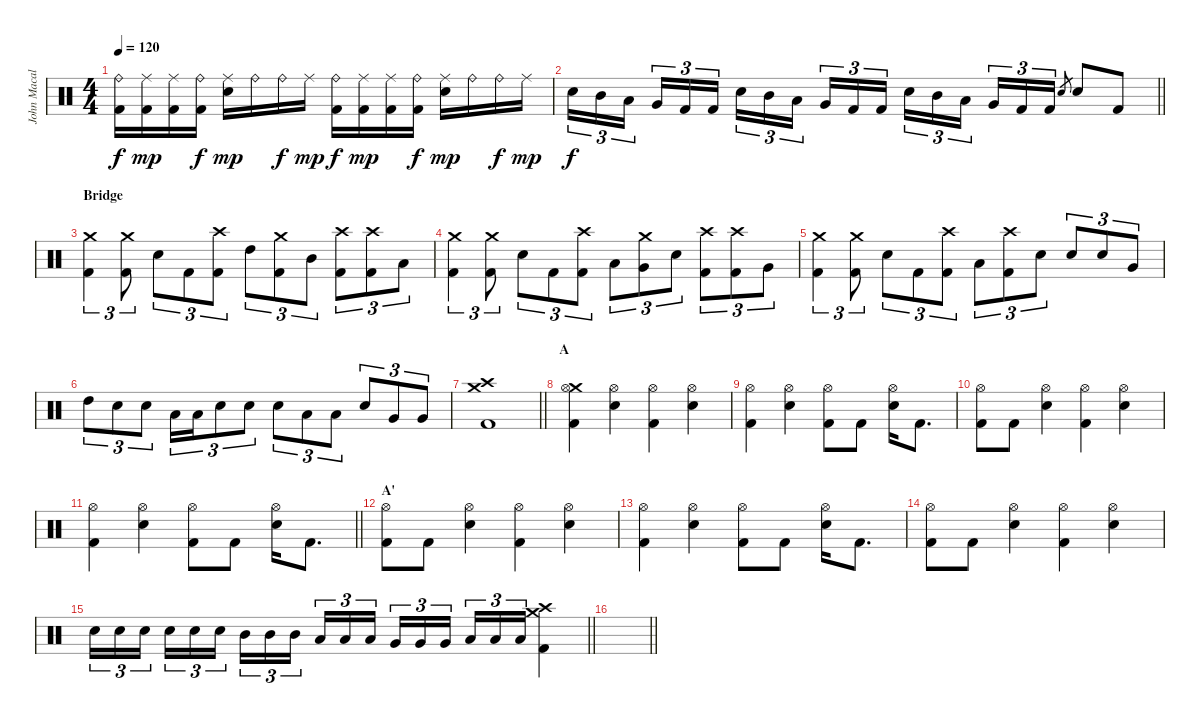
\track ("John Macaluso" "John Macal") {instrument percussion}
\staff {score}
\articulation defaults
\ts (4 4)
\tempo 120
\clef neutral
\ks c
("Ride (bell)" "Kick (hit) 2").16{dy f} ("Ride (middle)" "Kick (hit) 2").16{dy mp} ("Ride (middle)" "Kick (hit) 2").16 ("Ride (bell)" "Kick (hit) 2").16{dy f} ("Ride (middle)" "Snare (hit) 2").16{dy mp} "Ride (bell)".16 "Ride (bell)".16{dy f} "Ride (middle)".16{dy mp} ("Ride (bell)" "Kick (hit) 2").16{dy f} ("Ride (middle)" "Kick (hit) 2").16{dy mp} ("Ride (middle)" "Kick (hit) 2").16 ("Ride (bell)" "Kick (hit) 2").16{dy f} ("Ride (middle)" "Snare (hit) 2").16{dy mp} "Ride (bell)".16 "Ride (bell)".16{dy f} "Ride (middle)".16{dy mp} |
\barLineRight lightlight "Snare (hit) 2".16{tu (3 2) dy f} "Mid Tom (hit)".16{tu (3 2)} "Low Tom (hit)".16{tu (3 2) beam splitsecondary} "Very Low Tom (hit)".16{tu (3 2)} "Kick (hit) 2".16{tu (3 2)} "Kick (hit) 2".16{tu (3 2)} "Snare (hit) 2".16{tu (3 2)} "Mid Tom (hit)".16{tu (3 2)} "Low Tom (hit)".16{tu (3 2) beam splitsecondary} "Very Low Tom (hit)".16{tu (3 2)} "Kick (hit) 2".16{tu (3 2)} "Kick (hit) 2".16{tu (3 2)} "Snare (hit) 2".16{tu (3 2)} "Mid Tom (hit)".16{tu (3 2)} "Low Tom (hit)".16{tu (3 2) beam splitsecondary} "Very Low Tom (hit)".16{tu (3 2)} "Kick (hit) 2".16{tu (3 2)} "Kick (hit) 2".16{tu (3 2)} "Snare (hit) 2".8{gr} "Snare (hit) 2".8 "Kick (hit) 2".8
|
\section ("" "Bridge")
("Crash medium (hit)" "Kick (hit) 2").4{tu (3 2)} ("Crash medium (hit)" "Kick (hit) 2").8{tu (3 2)} "Snare (hit) 2".8{tu (3 2)} "Kick (hit) 2".8{tu (3 2)} ("Crash high (hit)" "Kick (hit) 2").8{tu (3 2)} "High Tom (hit)".8{tu (3 2)} ("Crash medium (hit)" "Kick (hit) 2").8{tu (3 2)} "Mid Tom (hit)".8{tu (3 2)} ("Crash high (hit)" "Kick (hit) 2").8{tu (3 2)} ("Crash high (hit)" "Kick (hit) 2").8{tu (3 2)} "Low Tom (hit)".8{tu (3 2)} |
("Crash medium (hit)" "Kick (hit) 2").4{tu (3 2)} ("Crash medium (hit)" "Kick (hit) 2").8{tu (3 2)} "Snare (hit) 2".8{tu (3 2)} "Kick (hit) 2".8{tu (3 2)} ("Crash high (hit)" "Kick (hit) 2").8{tu (3 2)} "Low Tom (hit)".8{tu (3 2)} ("Crash medium (hit)" "Very Low Tom (hit)").8{tu (3 2)} "Snare (hit) 2".8{tu (3 2)} ("Crash high (hit)" "Kick (hit) 2").8{tu (3 2)} ("Crash high (hit)" "Kick (hit) 2").8{tu (3 2)} "Very Low Tom (hit)".8{tu (3 2)} |
("Crash medium (hit)" "Kick (hit) 2").4{tu (3 2)} ("Crash medium (hit)" "Kick (hit) 2").8{tu (3 2)} "Snare (hit) 2".8{tu (3 2)} "Kick (hit) 2".8{tu (3 2)} ("Crash high (hit)" "Kick (hit) 2").8{tu (3 2)} "Low Tom (hit)".8{tu (3 2)} ("Crash high (hit)" "Kick (hit) 2").8{tu (3 2)} "Snare (hit) 2".8{tu (3 2)} "Snare (hit) 2".8{tu (3 2)} "Snare (hit) 2".8{tu (3 2)} "Very Low Tom (hit)".8{tu (3 2)} |
"High Tom (hit)".8{tu (3 2)} "Snare (hit) 2".8{tu (3 2)} "Snare (hit) 2".8{tu (3 2)} "Low Tom (hit)".16{tu (3 2)} "Low Tom (hit)".16{tu (3 2)} "Snare (hit) 2".8{tu (3 2)} "Snare (hit) 2".8{tu (3 2)} "Snare (hit) 2".8{tu (3 2)} "Low Tom (hit)".8{tu (3 2)} "Low Tom (hit)".8{tu (3 2)} "Snare (hit) 2".8{tu (3 2)} "Very Low Tom (hit)".8{tu (3 2)} "Very Low Tom (hit)".8{tu (3 2)} |
\barLineRight lightlight
("Crash medium (hit)" "Crash high (hit)" "Kick (hit) 2").1 |
\section ("" "A")
("Crash medium (hit)" "Hi-Hat (open)" "Kick (hit) 2").4 ("Hi-Hat (open)" "Snare (hit) 2").4 ("Hi-Hat (open)" "Kick (hit) 2").4 ("Hi-Hat (open)" "Snare (hit) 2").4 |
("Hi-Hat (open)" "Kick (hit) 2").4 ("Hi-Hat (open)" "Snare (hit) 2").4 ("Hi-Hat (open)" "Kick (hit) 2").8 "Kick (hit) 2".8 ("Hi-Hat (open)" "Snare (hit) 2").16 "Kick (hit) 2".8{d} |
("Hi-Hat (open)" "Kick (hit) 2").8 "Kick (hit) 2".8 ("Hi-Hat (open)" "Snare (hit) 2").4 ("Hi-Hat (open)" "Kick (hit) 2").4 ("Hi-Hat (open)" "Snare (hit) 2").4 |
\barLineRight lightlight
("Hi-Hat (open)" "Kick (hit) 2").4 ("Hi-Hat (open)" "Snare (hit) 2").4 ("Hi-Hat (open)" "Kick (hit) 2").8 "Kick (hit) 2".8 ("Hi-Hat (open)" "Snare (hit) 2").16 "Kick (hit) 2".8{d} |
\section ("" "A'")
("Hi-Hat (open)" "Kick (hit) 2").8 "Kick (hit) 2".8 ("Hi-Hat (open)" "Snare (hit) 2").4 ("Hi-Hat (open)" "Kick (hit) 2").4 ("Hi-Hat (open)" "Snare (hit) 2").4 |
("Hi-Hat (open)" "Kick (hit) 2").4 ("Hi-Hat (open)" "Snare (hit) 2").4 ("Hi-Hat (open)" "Kick (hit) 2").8 "Kick (hit) 2".8 ("Hi-Hat (open)" "Snare (hit) 2").16 "Kick (hit) 2".8{d} |
("Hi-Hat (open)" "Kick (hit) 2").8 "Kick (hit) 2".8 ("Hi-Hat (open)" "Snare (hit) 2").4 ("Hi-Hat (open)" "Kick (hit) 2").4 ("Hi-Hat (open)" "Snare (hit) 2").4 |
\barLineRight lightlight "Snare (hit) 2".16{tu (3 2)} "Snare (hit) 2".16{tu (3 2)} "Snare (hit) 2".16{tu (3 2) beam splitsecondary} "Snare (hit) 2".16{tu (3 2)} "Snare (hit) 2".16{tu (3 2)} "Snare (hit) 2".16{tu (3 2)} "Mid Tom (hit)".16{tu (3 2)} "Mid Tom (hit)".16{tu (3 2)} "Mid Tom (hit)".16{tu (3 2) beam splitsecondary} "Low Tom (hit)".16{tu (3 2)} "Low Tom (hit)".16{tu (3 2)} "Low Tom (hit)".16{tu (3 2)} "Very Low Tom (hit)".16{tu (3 2)} "Very Low Tom (hit)".16{tu (3 2)} "Very Low Tom (hit)".16{tu (3 2) beam splitsecondary} "Low Floor Tom (hit)".16{tu (3 2)} "Low Floor Tom (hit)".16{tu (3 2)} "Low Floor Tom (hit)".16{tu (3 2)}
("Crash medium (hit)" "Crash high (hit)" "Kick (hit) 2").4 |
\barLineRight lightlight
